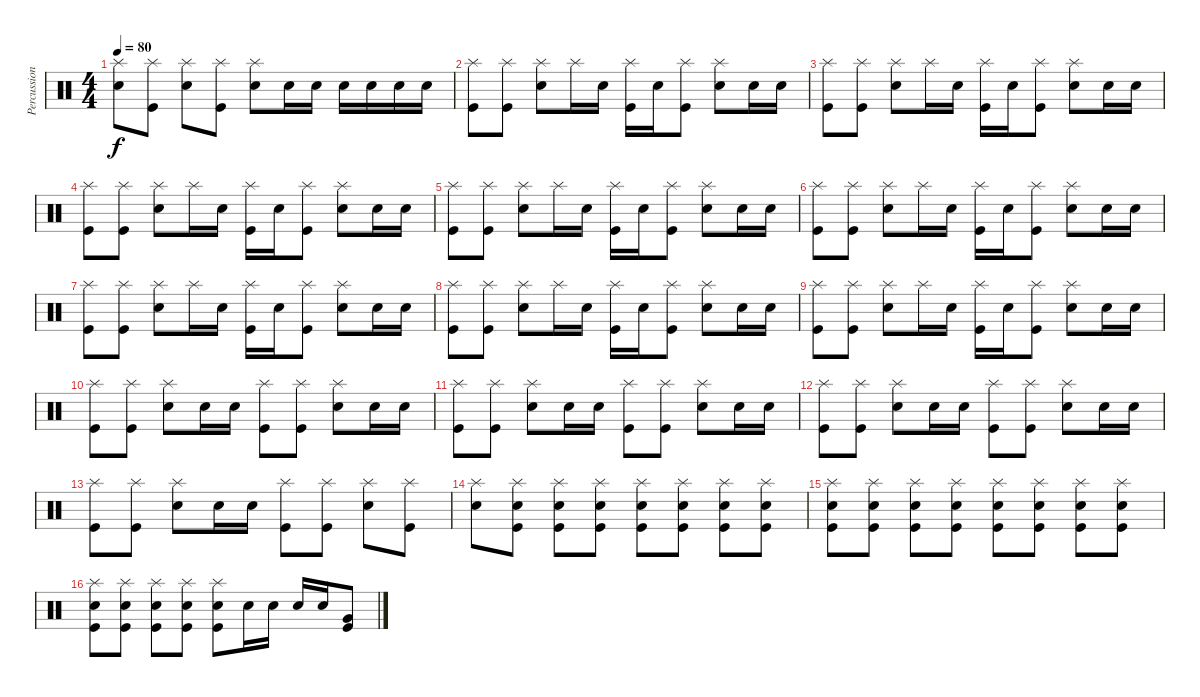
\track ("Percussions" "Percussion") {instrument percussion}
\staff {score}
\articulation defaults
\ts (4 4)
\tempo 80
\clef neutral
\ks c
("Splash (hit)" "Snare (hit) 2").8{dy f} ("Splash (hit)" "Kick (hit)").8 ("Splash (hit)" "Snare (hit) 2").8 ("Splash (hit)" "Kick (hit)").8 ("Splash (hit)" "Snare (hit) 2").8 "Snare (hit) 2".16 "Snare (hit) 2".16 "Snare (hit) 2".16 "Snare (hit) 2".16 "Snare (hit) 2".16 "Snare (hit) 2".16 |
("Splash (hit)" "Kick (hit)").8 ("Splash (hit)" "Kick (hit)").8 ("Splash (hit)" "Snare (hit) 2").8 "Splash (hit)".16 "Snare (hit) 2".16 ("Splash (hit)" "Kick (hit)").16 "Snare (hit) 2".16 ("Splash (hit)" "Kick (hit)").8 ("Splash (hit)" "Snare (hit) 2").8 "Snare (hit) 2".16 "Snare (hit) 2".16 |
("Splash (hit)" "Kick (hit)").8 ("Splash (hit)" "Kick (hit)").8 ("Splash (hit)" "Snare (hit) 2").8 "Splash (hit)".16 "Snare (hit) 2".16 ("Splash (hit)" "Kick (hit)").16 "Snare (hit) 2".16 ("Splash (hit)" "Kick (hit)").8 ("Splash (hit)" "Snare (hit) 2").8 "Snare (hit) 2".16 "Snare (hit) 2".16 |
("Splash (hit)" "Kick (hit)").8 ("Splash (hit)" "Kick (hit)").8 ("Splash (hit)" "Snare (hit) 2").8 "Splash (hit)".16 "Snare (hit) 2".16 ("Splash (hit)" "Kick (hit)").16 "Snare (hit) 2".16 ("Splash (hit)" "Kick (hit)").8 ("Splash (hit)" "Snare (hit) 2").8 "Snare (hit) 2".16 "Snare (hit) 2".16 |
("Splash (hit)" "Kick (hit)").8 ("Splash (hit)" "Kick (hit)").8 ("Splash (hit)" "Snare (hit) 2").8 "Splash (hit)".16 "Snare (hit) 2".16 ("Splash (hit)" "Kick (hit)").16 "Snare (hit) 2".16 ("Splash (hit)" "Kick (hit)").8 ("Splash (hit)" "Snare (hit) 2").8 "Snare (hit) 2".16 "Snare (hit) 2".16 |
("Splash (hit)" "Kick (hit)").8 ("Splash (hit)" "Kick (hit)").8 ("Splash (hit)" "Snare (hit) 2").8 "Splash (hit)".16 "Snare (hit) 2".16 ("Splash (hit)" "Kick (hit)").16 "Snare (hit) 2".16 ("Splash (hit)" "Kick (hit)").8 ("Splash (hit)" "Snare (hit) 2").8 "Snare (hit) 2".16 "Snare (hit) 2".16 |
("Splash (hit)" "Kick (hit)").8 ("Splash (hit)" "Kick (hit)").8 ("Splash (hit)" "Snare (hit) 2").8 "Splash (hit)".16 "Snare (hit) 2".16 ("Splash (hit)" "Kick (hit)").16 "Snare (hit) 2".16 ("Splash (hit)" "Kick (hit)").8 ("Splash (hit)" "Snare (hit) 2").8 "Snare (hit) 2".16 "Snare (hit) 2".16 |
("Splash (hit)" "Kick (hit)").8 ("Splash (hit)" "Kick (hit)").8 ("Splash (hit)" "Snare (hit) 2").8 "Splash (hit)".16 "Snare (hit) 2".16 ("Splash (hit)" "Kick (hit)").16 "Snare (hit) 2".16 ("Splash (hit)" "Kick (hit)").8 ("Splash (hit)" "Snare (hit) 2").8 "Snare (hit) 2".16 "Snare (hit) 2".16 |
("Splash (hit)" "Kick (hit)").8 ("Splash (hit)" "Kick (hit)").8 ("Splash (hit)" "Snare (hit) 2").8 "Splash (hit)".16 "Snare (hit) 2".16 ("Splash (hit)" "Kick (hit)").16 "Snare (hit) 2".16 ("Splash (hit)" "Kick (hit)").8 ("Splash (hit)" "Snare (hit) 2").8 "Snare (hit) 2".16 "Snare (hit) 2".16 |
("Splash (hit)" "Kick (hit)").8 ("Splash (hit)" "Kick (hit)").8 ("Splash (hit)" "Snare (hit) 2").8 "Snare (hit) 2".16 "Snare (hit) 2".16 ("Splash (hit)" "Kick (hit)").8 ("Splash (hit)" "Kick (hit)").8 ("Splash (hit)" "Snare (hit) 2").8 "Snare (hit) 2".16 "Snare (hit) 2".16 |
("Splash (hit)" "Kick (hit)").8 ("Splash (hit)" "Kick (hit)").8 ("Splash (hit)" "Snare (hit) 2").8 "Snare (hit) 2".16 "Snare (hit) 2".16 ("Splash (hit)" "Kick (hit)").8 ("Splash (hit)" "Kick (hit)").8 ("Splash (hit)" "Snare (hit) 2").8 "Snare (hit) 2".16 "Snare (hit) 2".16 |
("Splash (hit)" "Kick (hit)").8 ("Splash (hit)" "Kick (hit)").8 ("Splash (hit)" "Snare (hit) 2").8 "Snare (hit) 2".16 "Snare (hit) 2".16 ("Splash (hit)" "Kick (hit)").8 ("Splash (hit)" "Kick (hit)").8 ("Splash (hit)" "Snare (hit) 2").8 "Snare (hit) 2".16 "Snare (hit) 2".16 |
("Splash (hit)" "Kick (hit)").8 ("Splash (hit)" "Kick (hit)").8 ("Splash (hit)" "Snare (hit) 2").8 "Snare (hit) 2".16 "Snare (hit) 2".16 ("Splash (hit)" "Kick (hit)").8 ("Splash (hit)" "Kick (hit)").8 ("Splash (hit)" "Snare (hit) 2").8 ("Splash (hit)" "Kick (hit)").8 |
("Splash (hit)" "Snare (hit) 2").8 ("Splash (hit)" "Snare (hit) 2" "Kick (hit)").8 ("Splash (hit)" "Snare (hit) 2" "Kick (hit)").8 ("Splash (hit)" "Snare (hit) 2" "Kick (hit)").8 ("Splash (hit)" "Snare (hit) 2" "Kick (hit)").8 ("Splash (hit)" "Snare (hit) 2" "Kick (hit)").8 ("Splash (hit)" "Snare (hit) 2" "Kick (hit)").8 ("Splash (hit)" "Snare (hit) 2" "Kick (hit)").8 |
("Splash (hit)" "Snare (hit) 2" "Kick (hit)").8 ("Splash (hit)" "Snare (hit) 2" "Kick (hit)").8 ("Splash (hit)" "Snare (hit) 2" "Kick (hit)").8 ("Splash (hit)" "Snare (hit) 2" "Kick (hit)").8 ("Splash (hit)" "Snare (hit) 2" "Kick (hit)").8 ("Splash (hit)" "Snare (hit) 2" "Kick (hit)").8 ("Splash (hit)" "Snare (hit) 2" "Kick (hit)").8 ("Splash (hit)" "Snare (hit) 2" "Kick (hit)").8 |
("Splash (hit)" "Snare (hit) 2" "Kick (hit)").8 ("Splash (hit)" "Snare (hit) 2" "Kick (hit)").8 ("Splash (hit)" "Snare (hit) 2" "Kick (hit)").8 ("Splash (hit)" "Snare (hit) 2" "Kick (hit)").8 ("Splash (hit)" "Snare (hit) 2" "Kick (hit)").8 "Snare (hit) 2".16 "Snare (hit) 2".16 "Snare (hit) 2".16 "Snare (hit) 2".16 ("Very Low Tom (hit)" "Kick (hit)").8
